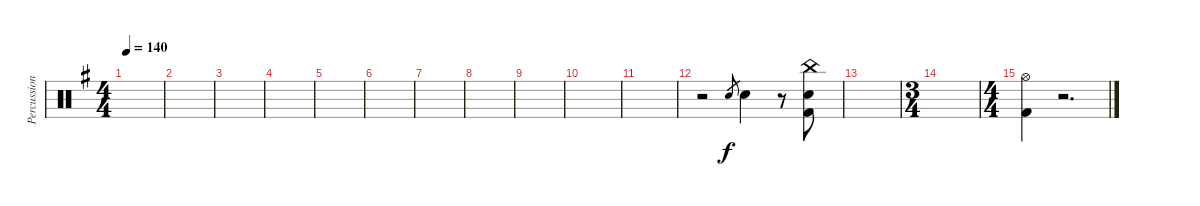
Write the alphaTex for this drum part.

\track ("Percussions" "Percussion") {instrument percussion}
\staff {score}
\articulation defaults
\ts (4 4)
\tempo 140
\clef neutral
\ks g
|
|
|
|
|
|
|
|
|
|
|
r.2 "Electric Snare (hit)".8{gr} "Electric Snare (hit)".4 r.8 ("China (hit)" "Snare (hit) 2" "Kick (hit) 2").8 |
|
\ts (3 4)
|
\ts (4 4)
("Hi-Hat (open)" "Kick (hit) 2").4 r.2{d}
